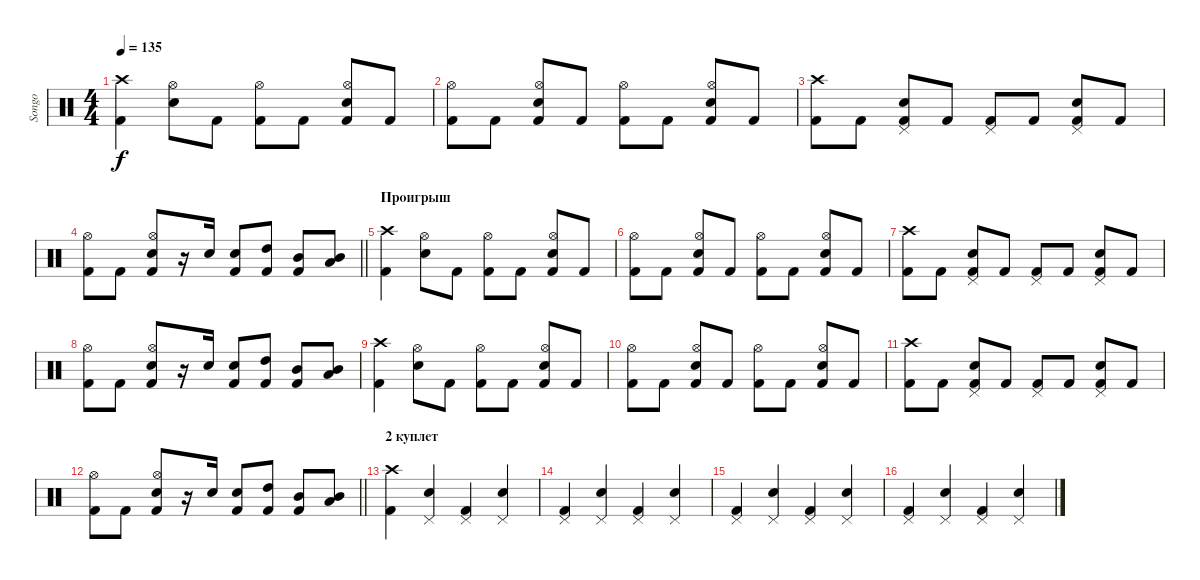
\track ("Songo" "Songo") {instrument percussion}
\staff {score}
\articulation defaults
\ts (4 4)
\tempo 135
\clef neutral
\ks c
("Crash high (hit)" "Kick (hit) 2").4{dy f} ("Hi-Hat (open)" "Snare (hit) 2").8 "Kick (hit) 2".8 ("Hi-Hat (open)" "Kick (hit) 2").8 "Kick (hit) 2".8 ("Hi-Hat (open)" "Snare (hit) 2" "Kick (hit) 2").8 "Kick (hit) 2".8 |
("Hi-Hat (open)" "Kick (hit) 2").8 "Kick (hit) 2".8 ("Hi-Hat (open)" "Snare (hit) 2" "Kick (hit) 2").8 "Kick (hit) 2".8 ("Hi-Hat (open)" "Kick (hit) 2").8 "Kick (hit) 2".8 ("Hi-Hat (open)" "Snare (hit) 2" "Kick (hit) 2").8 "Kick (hit) 2".8 |
("Crash high (hit)" "Kick (hit) 2").8 "Kick (hit) 2".8 ("Pedal Hi-Hat (hit)" "Snare (hit) 2" "Kick (hit) 2").8 "Kick (hit) 2".8 ("Pedal Hi-Hat (hit)" "Kick (hit) 2").8 "Kick (hit) 2".8 ("Pedal Hi-Hat (hit)" "Snare (hit) 2" "Kick (hit) 2").8 "Kick (hit) 2".8 |
\barLineRight lightlight
("Hi-Hat (open)" "Kick (hit) 2").8 "Kick (hit) 2".8 ("Hi-Hat (open)" "Snare (hit) 2" "Kick (hit) 2").8 r.16 "Snare (hit) 2".16 ("Snare (hit) 2" "Kick (hit) 2").8 ("High Tom (hit)" "Kick (hit) 2").8 ("Mid Tom (hit)" "Kick (hit) 2").8 ("Mid Tom (hit)" "Low Tom (hit)").8 |
\section ("" "Проигрыш")
("Crash high (hit)" "Kick (hit) 2").4 ("Hi-Hat (open)" "Snare (hit) 2").8 "Kick (hit) 2".8 ("Hi-Hat (open)" "Kick (hit) 2").8 "Kick (hit) 2".8 ("Hi-Hat (open)" "Snare (hit) 2" "Kick (hit) 2").8 "Kick (hit) 2".8 |
("Hi-Hat (open)" "Kick (hit) 2").8 "Kick (hit) 2".8 ("Hi-Hat (open)" "Snare (hit) 2" "Kick (hit) 2").8 "Kick (hit) 2".8 ("Hi-Hat (open)" "Kick (hit) 2").8 "Kick (hit) 2".8 ("Hi-Hat (open)" "Snare (hit) 2" "Kick (hit) 2").8 "Kick (hit) 2".8 |
("Crash high (hit)" "Kick (hit) 2").8 "Kick (hit) 2".8 ("Pedal Hi-Hat (hit)" "Snare (hit) 2" "Kick (hit) 2").8 "Kick (hit) 2".8 ("Pedal Hi-Hat (hit)" "Kick (hit) 2").8 "Kick (hit) 2".8 ("Pedal Hi-Hat (hit)" "Snare (hit) 2" "Kick (hit) 2").8 "Kick (hit) 2".8 |
("Hi-Hat (open)" "Kick (hit) 2").8 "Kick (hit) 2".8 ("Hi-Hat (open)" "Snare (hit) 2" "Kick (hit) 2").8 r.16 "Snare (hit) 2".16 ("Snare (hit) 2" "Kick (hit) 2").8 ("High Tom (hit)" "Kick (hit) 2").8 ("Mid Tom (hit)" "Kick (hit) 2").8 ("Mid Tom (hit)" "Low Tom (hit)").8 |
("Crash high (hit)" "Kick (hit) 2").4 ("Hi-Hat (open)" "Snare (hit) 2").8 "Kick (hit) 2".8 ("Hi-Hat (open)" "Kick (hit) 2").8 "Kick (hit) 2".8 ("Hi-Hat (open)" "Snare (hit) 2" "Kick (hit) 2").8 "Kick (hit) 2".8 |
("Hi-Hat (open)" "Kick (hit) 2").8 "Kick (hit) 2".8 ("Hi-Hat (open)" "Snare (hit) 2" "Kick (hit) 2").8 "Kick (hit) 2".8 ("Hi-Hat (open)" "Kick (hit) 2").8 "Kick (hit) 2".8 ("Hi-Hat (open)" "Snare (hit) 2" "Kick (hit) 2").8 "Kick (hit) 2".8 |
("Crash high (hit)" "Kick (hit) 2").8 "Kick (hit) 2".8 ("Pedal Hi-Hat (hit)" "Snare (hit) 2" "Kick (hit) 2").8 "Kick (hit) 2".8 ("Pedal Hi-Hat (hit)" "Kick (hit) 2").8 "Kick (hit) 2".8 ("Pedal Hi-Hat (hit)" "Snare (hit) 2" "Kick (hit) 2").8 "Kick (hit) 2".8 |
\barLineRight lightlight
("Hi-Hat (open)" "Kick (hit) 2").8 "Kick (hit) 2".8 ("Hi-Hat (open)" "Snare (hit) 2" "Kick (hit) 2").8 r.16 "Snare (hit) 2".16 ("Snare (hit) 2" "Kick (hit) 2").8 ("High Tom (hit)" "Kick (hit) 2").8 ("Mid Tom (hit)" "Kick (hit) 2").8 ("Mid Tom (hit)" "Low Tom (hit)").8 |
\section ("" "2 куплет")
("Crash high (hit)" "Kick (hit) 2").4 ("Pedal Hi-Hat (hit)" "Snare (hit) 2").4 ("Pedal Hi-Hat (hit)" "Kick (hit) 2").4 ("Pedal Hi-Hat (hit)" "Snare (hit) 2").4 |
("Pedal Hi-Hat (hit)" "Kick (hit) 2").4 ("Pedal Hi-Hat (hit)" "Snare (hit) 2").4 ("Pedal Hi-Hat (hit)" "Kick (hit) 2").4 ("Pedal Hi-Hat (hit)" "Snare (hit) 2").4 |
("Pedal Hi-Hat (hit)" "Kick (hit) 2").4 ("Pedal Hi-Hat (hit)" "Snare (hit) 2").4 ("Pedal Hi-Hat (hit)" "Kick (hit) 2").4 ("Pedal Hi-Hat (hit)" "Snare (hit) 2").4 |
("Pedal Hi-Hat (hit)" "Kick (hit) 2").4 ("Pedal Hi-Hat (hit)" "Snare (hit) 2").4 ("Pedal Hi-Hat (hit)" "Kick (hit) 2").4 ("Pedal Hi-Hat (hit)" "Snare (hit) 2").4
